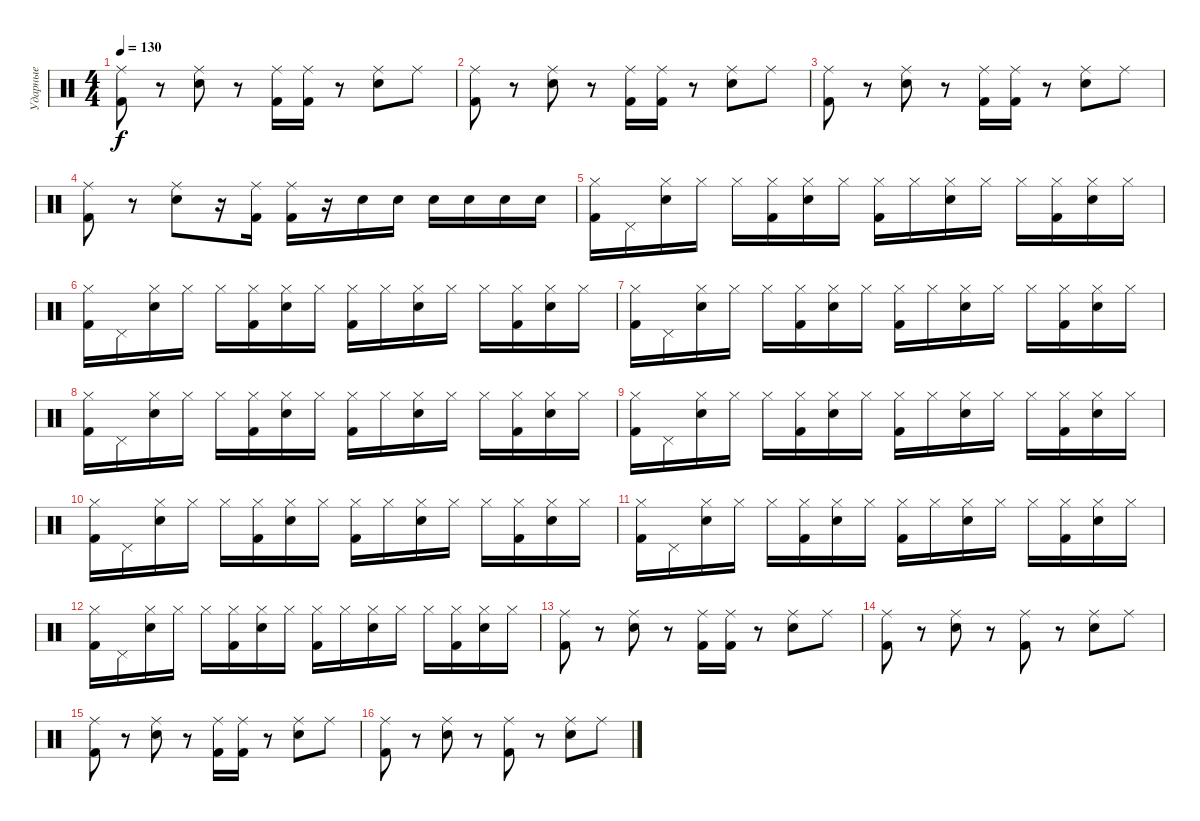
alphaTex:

\track ("Ударные" "Ударные") {instrument percussion}
\staff {score}
\articulation defaults
\ts (4 4)
\tempo 130
\clef neutral
\ks c
("Kick (hit) 2" "Ride (middle)").8{dy f} r.8 ("Electric Snare (hit)" "Ride (middle)").8 r.8 ("Kick (hit) 2" "Ride (middle)").16 ("Kick (hit) 2" "Ride (middle)").16 r.8 ("Electric Snare (hit)" "Ride (middle)").8 "Ride (middle)".8 |
("Kick (hit) 2" "Ride (middle)").8 r.8 ("Electric Snare (hit)" "Ride (middle)").8 r.8 ("Kick (hit) 2" "Ride (middle)").16 ("Kick (hit) 2" "Ride (middle)").16 r.8 ("Electric Snare (hit)" "Ride (middle)").8 "Ride (middle)".8 |
("Kick (hit) 2" "Ride (middle)").8 r.8 ("Electric Snare (hit)" "Ride (middle)").8 r.8 ("Kick (hit) 2" "Ride (middle)").16 ("Kick (hit) 2" "Ride (middle)").16 r.8 ("Electric Snare (hit)" "Ride (middle)").8 "Ride (middle)".8 |
("Kick (hit) 2" "Ride (middle)").8 r.8 ("Electric Snare (hit)" "Ride (middle)").8 r.16 ("Kick (hit) 2" "Ride (middle)").16 ("Kick (hit) 2" "Ride (middle)").16 r.16 "Electric Snare (hit)".16 "Electric Snare (hit)".16 "Electric Snare (hit)".16 "Electric Snare (hit)".16 "Electric Snare (hit)".16 "Electric Snare (hit)".16 |
("Kick (hit) 2" "Hi-Hat (closed)").16 "Pedal Hi-Hat (hit)".16 ("Electric Snare (hit)" "Hi-Hat (closed)").16 "Hi-Hat (closed)".16 "Hi-Hat (closed)".16 ("Kick (hit) 2" "Hi-Hat (closed)").16 ("Electric Snare (hit)" "Hi-Hat (closed)").16 "Hi-Hat (closed)".16 ("Kick (hit) 2" "Hi-Hat (closed)").16 "Hi-Hat (closed)".16 ("Electric Snare (hit)" "Hi-Hat (closed)").16 "Hi-Hat (closed)".16 "Hi-Hat (closed)".16 ("Kick (hit) 2" "Hi-Hat (closed)").16 ("Electric Snare (hit)" "Hi-Hat (closed)").16 "Hi-Hat (closed)".16 |
("Kick (hit) 2" "Hi-Hat (closed)").16 "Pedal Hi-Hat (hit)".16 ("Electric Snare (hit)" "Hi-Hat (closed)").16 "Hi-Hat (closed)".16 "Hi-Hat (closed)".16 ("Kick (hit) 2" "Hi-Hat (closed)").16 ("Electric Snare (hit)" "Hi-Hat (closed)").16 "Hi-Hat (closed)".16 ("Kick (hit) 2" "Hi-Hat (closed)").16 "Hi-Hat (closed)".16 ("Electric Snare (hit)" "Hi-Hat (closed)").16 "Hi-Hat (closed)".16 "Hi-Hat (closed)".16 ("Kick (hit) 2" "Hi-Hat (closed)").16 ("Electric Snare (hit)" "Hi-Hat (closed)").16 "Hi-Hat (closed)".16 |
("Kick (hit) 2" "Hi-Hat (closed)").16 "Pedal Hi-Hat (hit)".16 ("Electric Snare (hit)" "Hi-Hat (closed)").16 "Hi-Hat (closed)".16 "Hi-Hat (closed)".16 ("Kick (hit) 2" "Hi-Hat (closed)").16 ("Electric Snare (hit)" "Hi-Hat (closed)").16 "Hi-Hat (closed)".16 ("Kick (hit) 2" "Hi-Hat (closed)").16 "Hi-Hat (closed)".16 ("Electric Snare (hit)" "Hi-Hat (closed)").16 "Hi-Hat (closed)".16 "Hi-Hat (closed)".16 ("Kick (hit) 2" "Hi-Hat (closed)").16 ("Electric Snare (hit)" "Hi-Hat (closed)").16 "Hi-Hat (closed)".16 |
("Kick (hit) 2" "Hi-Hat (closed)").16 "Pedal Hi-Hat (hit)".16 ("Electric Snare (hit)" "Hi-Hat (closed)").16 "Hi-Hat (closed)".16 "Hi-Hat (closed)".16 ("Kick (hit) 2" "Hi-Hat (closed)").16 ("Electric Snare (hit)" "Hi-Hat (closed)").16 "Hi-Hat (closed)".16 ("Kick (hit) 2" "Hi-Hat (closed)").16 "Hi-Hat (closed)".16 ("Electric Snare (hit)" "Hi-Hat (closed)").16 "Hi-Hat (closed)".16 "Hi-Hat (closed)".16 ("Kick (hit) 2" "Hi-Hat (closed)").16 ("Electric Snare (hit)" "Hi-Hat (closed)").16 "Hi-Hat (closed)".16 |
("Kick (hit) 2" "Hi-Hat (closed)").16 "Pedal Hi-Hat (hit)".16 ("Electric Snare (hit)" "Hi-Hat (closed)").16 "Hi-Hat (closed)".16 "Hi-Hat (closed)".16 ("Kick (hit) 2" "Hi-Hat (closed)").16 ("Electric Snare (hit)" "Hi-Hat (closed)").16 "Hi-Hat (closed)".16 ("Kick (hit) 2" "Hi-Hat (closed)").16 "Hi-Hat (closed)".16 ("Electric Snare (hit)" "Hi-Hat (closed)").16 "Hi-Hat (closed)".16 "Hi-Hat (closed)".16 ("Kick (hit) 2" "Hi-Hat (closed)").16 ("Electric Snare (hit)" "Hi-Hat (closed)").16 "Hi-Hat (closed)".16 |
("Kick (hit) 2" "Hi-Hat (closed)").16 "Pedal Hi-Hat (hit)".16 ("Electric Snare (hit)" "Hi-Hat (closed)").16 "Hi-Hat (closed)".16 "Hi-Hat (closed)".16 ("Kick (hit) 2" "Hi-Hat (closed)").16 ("Electric Snare (hit)" "Hi-Hat (closed)").16 "Hi-Hat (closed)".16 ("Kick (hit) 2" "Hi-Hat (closed)").16 "Hi-Hat (closed)".16 ("Electric Snare (hit)" "Hi-Hat (closed)").16 "Hi-Hat (closed)".16 "Hi-Hat (closed)".16 ("Kick (hit) 2" "Hi-Hat (closed)").16 ("Electric Snare (hit)" "Hi-Hat (closed)").16 "Hi-Hat (closed)".16 |
("Kick (hit) 2" "Hi-Hat (closed)").16 "Pedal Hi-Hat (hit)".16 ("Electric Snare (hit)" "Hi-Hat (closed)").16 "Hi-Hat (closed)".16 "Hi-Hat (closed)".16 ("Kick (hit) 2" "Hi-Hat (closed)").16 ("Electric Snare (hit)" "Hi-Hat (closed)").16 "Hi-Hat (closed)".16 ("Kick (hit) 2" "Hi-Hat (closed)").16 "Hi-Hat (closed)".16 ("Electric Snare (hit)" "Hi-Hat (closed)").16 "Hi-Hat (closed)".16 "Hi-Hat (closed)".16 ("Kick (hit) 2" "Hi-Hat (closed)").16 ("Electric Snare (hit)" "Hi-Hat (closed)").16 "Hi-Hat (closed)".16 |
("Kick (hit) 2" "Hi-Hat (closed)").16 "Pedal Hi-Hat (hit)".16 ("Electric Snare (hit)" "Hi-Hat (closed)").16 "Hi-Hat (closed)".16 "Hi-Hat (closed)".16 ("Kick (hit) 2" "Hi-Hat (closed)").16 ("Electric Snare (hit)" "Hi-Hat (closed)").16 "Hi-Hat (closed)".16 ("Kick (hit) 2" "Hi-Hat (closed)").16 "Hi-Hat (closed)".16 ("Electric Snare (hit)" "Hi-Hat (closed)").16 "Hi-Hat (closed)".16 "Hi-Hat (closed)".16 ("Kick (hit) 2" "Hi-Hat (closed)").16 ("Electric Snare (hit)" "Hi-Hat (closed)").16 "Hi-Hat (closed)".16 |
("Kick (hit) 2" "Ride (middle)").8 r.8 ("Electric Snare (hit)" "Ride (middle)").8 r.8 ("Kick (hit) 2" "Ride (middle)").16 ("Kick (hit) 2" "Ride (middle)").16 r.8 ("Electric Snare (hit)" "Ride (middle)").8 "Ride (middle)".8 |
("Kick (hit) 2" "Ride (middle)").8 r.8 ("Electric Snare (hit)" "Ride (middle)").8 r.8 ("Kick (hit) 2" "Ride (middle)").8 r.8 ("Electric Snare (hit)" "Ride (middle)").8 "Ride (middle)".8 |
("Kick (hit) 2" "Ride (middle)").8 r.8 ("Electric Snare (hit)" "Ride (middle)").8 r.8 ("Kick (hit) 2" "Ride (middle)").16 ("Kick (hit) 2" "Ride (middle)").16 r.8 ("Electric Snare (hit)" "Ride (middle)").8 "Ride (middle)".8 |
("Kick (hit) 2" "Ride (middle)").8 r.8 ("Electric Snare (hit)" "Ride (middle)").8 r.8 ("Kick (hit) 2" "Ride (middle)").8 r.8 ("Electric Snare (hit)" "Ride (middle)").8 "Ride (middle)".8
